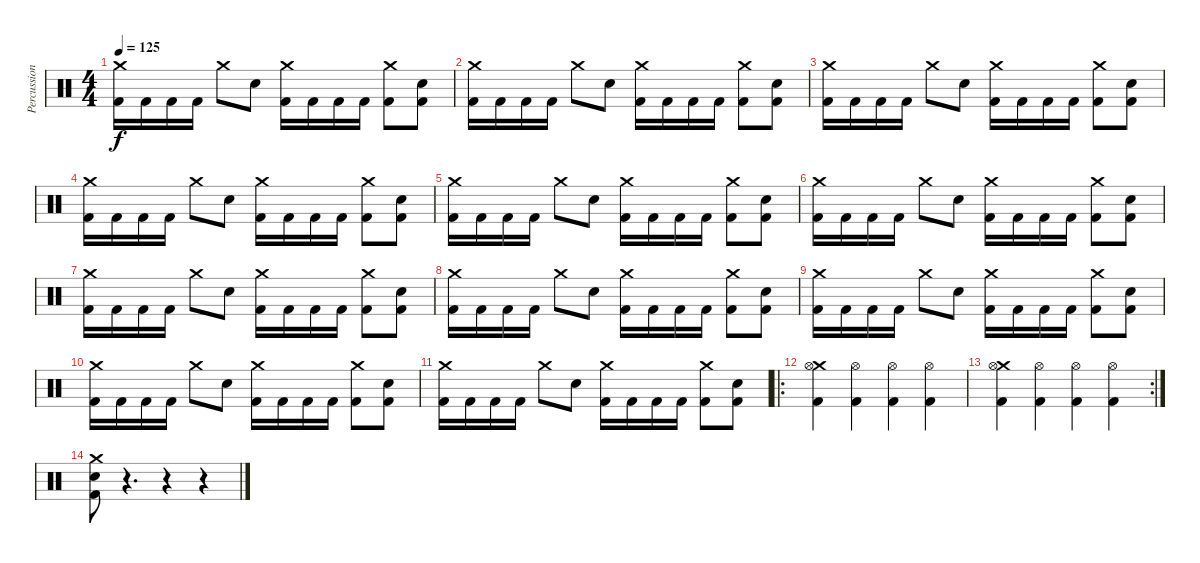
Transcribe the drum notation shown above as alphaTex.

\track ("Percussion" "Percussion") {instrument percussion}
\staff {score}
\articulation defaults
\ts (4 4)
\tempo 125
\clef neutral
\ks c
("Crash medium (hit)" "Kick (hit) 2").16{dy f} "Kick (hit) 2".16 "Kick (hit) 2".16 "Kick (hit) 2".16 "Crash medium (hit)".8 "Snare (hit) 2".8 ("Crash medium (hit)" "Kick (hit) 2").16 "Kick (hit) 2".16 "Kick (hit) 2".16 "Kick (hit) 2".16 ("Crash medium (hit)" "Kick (hit) 2").8 ("Kick (hit) 2" "Snare (hit) 2").8 |
("Crash medium (hit)" "Kick (hit) 2").16 "Kick (hit) 2".16 "Kick (hit) 2".16 "Kick (hit) 2".16 "Crash medium (hit)".8 "Snare (hit) 2".8 ("Crash medium (hit)" "Kick (hit) 2").16 "Kick (hit) 2".16 "Kick (hit) 2".16 "Kick (hit) 2".16 ("Crash medium (hit)" "Kick (hit) 2").8 ("Kick (hit) 2" "Snare (hit) 2").8 |
("Crash medium (hit)" "Kick (hit) 2").16 "Kick (hit) 2".16 "Kick (hit) 2".16 "Kick (hit) 2".16 "Crash medium (hit)".8 "Snare (hit) 2".8 ("Crash medium (hit)" "Kick (hit) 2").16 "Kick (hit) 2".16 "Kick (hit) 2".16 "Kick (hit) 2".16 ("Crash medium (hit)" "Kick (hit) 2").8 ("Kick (hit) 2" "Snare (hit) 2").8 |
("Crash medium (hit)" "Kick (hit) 2").16 "Kick (hit) 2".16 "Kick (hit) 2".16 "Kick (hit) 2".16 "Crash medium (hit)".8 "Snare (hit) 2".8 ("Crash medium (hit)" "Kick (hit) 2").16 "Kick (hit) 2".16 "Kick (hit) 2".16 "Kick (hit) 2".16 ("Crash medium (hit)" "Kick (hit) 2").8 ("Kick (hit) 2" "Snare (hit) 2").8 |
("Crash medium (hit)" "Kick (hit) 2").16 "Kick (hit) 2".16 "Kick (hit) 2".16 "Kick (hit) 2".16 "Crash medium (hit)".8 "Snare (hit) 2".8 ("Crash medium (hit)" "Kick (hit) 2").16 "Kick (hit) 2".16 "Kick (hit) 2".16 "Kick (hit) 2".16 ("Crash medium (hit)" "Kick (hit) 2").8 ("Kick (hit) 2" "Snare (hit) 2").8 |
("Crash medium (hit)" "Kick (hit) 2").16 "Kick (hit) 2".16 "Kick (hit) 2".16 "Kick (hit) 2".16 "Crash medium (hit)".8 "Snare (hit) 2".8 ("Crash medium (hit)" "Kick (hit) 2").16 "Kick (hit) 2".16 "Kick (hit) 2".16 "Kick (hit) 2".16 ("Crash medium (hit)" "Kick (hit) 2").8 ("Kick (hit) 2" "Snare (hit) 2").8 |
("Crash medium (hit)" "Kick (hit) 2").16 "Kick (hit) 2".16 "Kick (hit) 2".16 "Kick (hit) 2".16 "Crash medium (hit)".8 "Snare (hit) 2".8 ("Crash medium (hit)" "Kick (hit) 2").16 "Kick (hit) 2".16 "Kick (hit) 2".16 "Kick (hit) 2".16 ("Crash medium (hit)" "Kick (hit) 2").8 ("Kick (hit) 2" "Snare (hit) 2").8 |
("Crash medium (hit)" "Kick (hit) 2").16 "Kick (hit) 2".16 "Kick (hit) 2".16 "Kick (hit) 2".16 "Crash medium (hit)".8 "Snare (hit) 2".8 ("Crash medium (hit)" "Kick (hit) 2").16 "Kick (hit) 2".16 "Kick (hit) 2".16 "Kick (hit) 2".16 ("Crash medium (hit)" "Kick (hit) 2").8 ("Kick (hit) 2" "Snare (hit) 2").8 |
("Crash medium (hit)" "Kick (hit) 2").16 "Kick (hit) 2".16 "Kick (hit) 2".16 "Kick (hit) 2".16 "Crash medium (hit)".8 "Snare (hit) 2".8 ("Crash medium (hit)" "Kick (hit) 2").16 "Kick (hit) 2".16 "Kick (hit) 2".16 "Kick (hit) 2".16 ("Crash medium (hit)" "Kick (hit) 2").8 ("Kick (hit) 2" "Snare (hit) 2").8 |
("Crash medium (hit)" "Kick (hit) 2").16 "Kick (hit) 2".16 "Kick (hit) 2".16 "Kick (hit) 2".16 "Crash medium (hit)".8 "Snare (hit) 2".8 ("Crash medium (hit)" "Kick (hit) 2").16 "Kick (hit) 2".16 "Kick (hit) 2".16 "Kick (hit) 2".16 ("Crash medium (hit)" "Kick (hit) 2").8 ("Kick (hit) 2" "Snare (hit) 2").8 |
("Crash medium (hit)" "Kick (hit) 2").16 "Kick (hit) 2".16 "Kick (hit) 2".16 "Kick (hit) 2".16 "Crash medium (hit)".8 "Snare (hit) 2".8 ("Crash medium (hit)" "Kick (hit) 2").16 "Kick (hit) 2".16 "Kick (hit) 2".16 "Kick (hit) 2".16 ("Crash medium (hit)" "Kick (hit) 2").8 ("Kick (hit) 2" "Snare (hit) 2").8 |
\ro
("Crash medium (hit)" "Kick (hit) 2" "Hi-Hat (open)").4 ("Kick (hit) 2" "Hi-Hat (open)").4 ("Kick (hit) 2" "Hi-Hat (open)").4 ("Kick (hit) 2" "Hi-Hat (open)").4 |
\rc 2
("Crash medium (hit)" "Kick (hit) 2" "Hi-Hat (open)").4 ("Kick (hit) 2" "Hi-Hat (open)").4 ("Kick (hit) 2" "Hi-Hat (open)").4 ("Kick (hit) 2" "Hi-Hat (open)").4 |
("Crash medium (hit)" "Kick (hit) 2" "Snare (hit) 2").8 r.4{d} r.4 r.4
